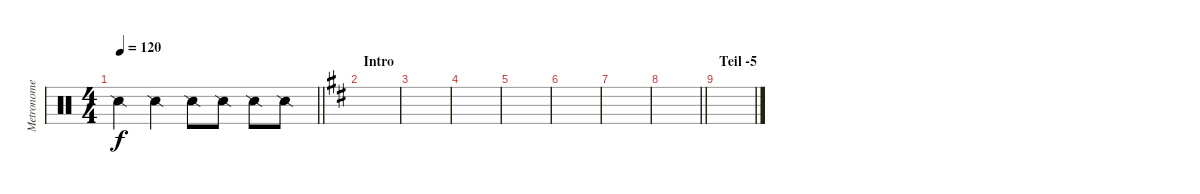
\track ("Metronome" "Metronome") {instrument percussion}
\staff {score}
\articulation defaults
\ts (4 4)
\tempo 120
\clef neutral
\barLineRight lightlight
\ks c "Snare (side stick) 2".4{dy f} "Snare (side stick) 2".4 "Snare (side stick) 2".8 "Snare (side stick) 2".8 "Snare (side stick) 2".8 "Snare (side stick) 2".8
|
\section ("" "Intro")
\ks d
|
|
|
|
|
|
\barLineRight lightlight
|
\section ("" "Teil -5")
